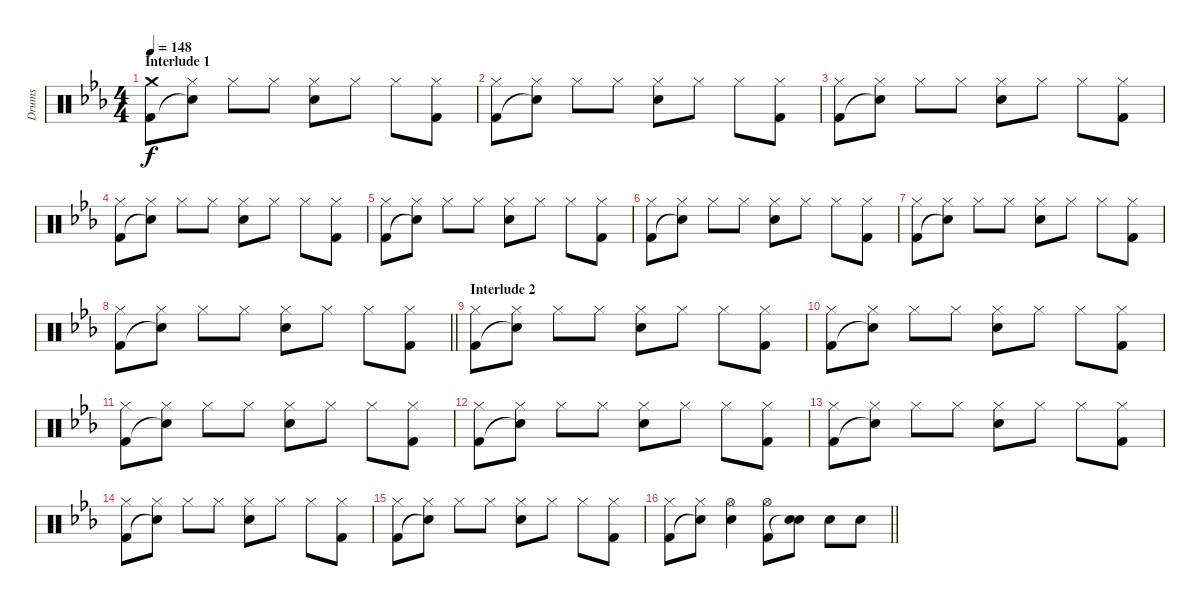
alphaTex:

\track ("Drums" "Drums") {instrument percussion}
\staff {score}
\articulation defaults
\ts (4 4)
\section ("" "Interlude 1")
\tempo 148
\clef neutral
\ks eb
("Crash medium (hit)" "Kick (hit) 2").8{dy f} ("Hi-Hat (closed)" "Snare (hit)"{t}).8 "Hi-Hat (closed)".8 "Hi-Hat (closed)".8 ("Hi-Hat (closed)" "Electric Snare (hit)").8 "Hi-Hat (closed)".8 "Hi-Hat (closed)".8 ("Hi-Hat (closed)" "Kick (hit) 2").8 |
("Hi-Hat (closed)" "Kick (hit) 2").8 ("Hi-Hat (closed)" "Snare (hit)"{t}).8 "Hi-Hat (closed)".8 "Hi-Hat (closed)".8 ("Hi-Hat (closed)" "Electric Snare (hit)").8 "Hi-Hat (closed)".8 "Hi-Hat (closed)".8 ("Hi-Hat (closed)" "Kick (hit) 2").8 |
("Hi-Hat (closed)" "Kick (hit) 2").8 ("Hi-Hat (closed)" "Snare (hit)"{t}).8 "Hi-Hat (closed)".8 "Hi-Hat (closed)".8 ("Hi-Hat (closed)" "Electric Snare (hit)").8 "Hi-Hat (closed)".8 "Hi-Hat (closed)".8 ("Hi-Hat (closed)" "Kick (hit) 2").8 |
("Hi-Hat (closed)" "Kick (hit) 2").8 ("Hi-Hat (closed)" "Snare (hit)"{t}).8 "Hi-Hat (closed)".8 "Hi-Hat (closed)".8 ("Hi-Hat (closed)" "Electric Snare (hit)").8 "Hi-Hat (closed)".8 "Hi-Hat (closed)".8 ("Hi-Hat (closed)" "Kick (hit) 2").8 |
("Hi-Hat (closed)" "Kick (hit) 2").8 ("Hi-Hat (closed)" "Snare (hit)"{t}).8 "Hi-Hat (closed)".8 "Hi-Hat (closed)".8 ("Hi-Hat (closed)" "Electric Snare (hit)").8 "Hi-Hat (closed)".8 "Hi-Hat (closed)".8 ("Hi-Hat (closed)" "Kick (hit) 2").8 |
("Hi-Hat (closed)" "Kick (hit) 2").8 ("Hi-Hat (closed)" "Snare (hit)"{t}).8 "Hi-Hat (closed)".8 "Hi-Hat (closed)".8 ("Hi-Hat (closed)" "Electric Snare (hit)").8 "Hi-Hat (closed)".8 "Hi-Hat (closed)".8 ("Hi-Hat (closed)" "Kick (hit) 2").8 |
("Hi-Hat (closed)" "Kick (hit) 2").8 ("Hi-Hat (closed)" "Snare (hit)"{t}).8 "Hi-Hat (closed)".8 "Hi-Hat (closed)".8 ("Hi-Hat (closed)" "Electric Snare (hit)").8 "Hi-Hat (closed)".8 "Hi-Hat (closed)".8 ("Hi-Hat (closed)" "Kick (hit) 2").8 |
\barLineRight lightlight
("Hi-Hat (closed)" "Kick (hit) 2").8 ("Hi-Hat (closed)" "Snare (hit)"{t}).8 "Hi-Hat (closed)".8 "Hi-Hat (closed)".8 ("Hi-Hat (closed)" "Electric Snare (hit)").8 "Hi-Hat (closed)".8 "Hi-Hat (closed)".8 ("Hi-Hat (closed)" "Kick (hit) 2").8 |
\section ("" "Interlude 2")
("Hi-Hat (closed)" "Kick (hit) 2").8 ("Hi-Hat (closed)" "Snare (hit)"{t}).8 "Hi-Hat (closed)".8 "Hi-Hat (closed)".8 ("Hi-Hat (closed)" "Electric Snare (hit)").8 "Hi-Hat (closed)".8 "Hi-Hat (closed)".8 ("Hi-Hat (closed)" "Kick (hit) 2").8 |
("Hi-Hat (closed)" "Kick (hit) 2").8 ("Hi-Hat (closed)" "Snare (hit)"{t}).8 "Hi-Hat (closed)".8 "Hi-Hat (closed)".8 ("Hi-Hat (closed)" "Electric Snare (hit)").8 "Hi-Hat (closed)".8 "Hi-Hat (closed)".8 ("Hi-Hat (closed)" "Kick (hit) 2").8 |
("Hi-Hat (closed)" "Kick (hit) 2").8 ("Hi-Hat (closed)" "Snare (hit)"{t}).8 "Hi-Hat (closed)".8 "Hi-Hat (closed)".8 ("Hi-Hat (closed)" "Electric Snare (hit)").8 "Hi-Hat (closed)".8 "Hi-Hat (closed)".8 ("Hi-Hat (closed)" "Kick (hit) 2").8 |
("Hi-Hat (closed)" "Kick (hit) 2").8 ("Hi-Hat (closed)" "Snare (hit)"{t}).8 "Hi-Hat (closed)".8 "Hi-Hat (closed)".8 ("Hi-Hat (closed)" "Electric Snare (hit)").8 "Hi-Hat (closed)".8 "Hi-Hat (closed)".8 ("Hi-Hat (closed)" "Kick (hit) 2").8 |
("Hi-Hat (closed)" "Kick (hit) 2").8 ("Hi-Hat (closed)" "Snare (hit)"{t}).8 "Hi-Hat (closed)".8 "Hi-Hat (closed)".8 ("Hi-Hat (closed)" "Electric Snare (hit)").8 "Hi-Hat (closed)".8 "Hi-Hat (closed)".8 ("Hi-Hat (closed)" "Kick (hit) 2").8 |
("Hi-Hat (closed)" "Kick (hit) 2").8 ("Hi-Hat (closed)" "Snare (hit)"{t}).8 "Hi-Hat (closed)".8 "Hi-Hat (closed)".8 ("Hi-Hat (closed)" "Electric Snare (hit)").8 "Hi-Hat (closed)".8 "Hi-Hat (closed)".8 ("Hi-Hat (closed)" "Kick (hit) 2").8 |
("Hi-Hat (closed)" "Kick (hit) 2").8 ("Hi-Hat (closed)" "Snare (hit)"{t}).8 "Hi-Hat (closed)".8 "Hi-Hat (closed)".8 ("Hi-Hat (closed)" "Electric Snare (hit)").8 "Hi-Hat (closed)".8 "Hi-Hat (closed)".8 ("Hi-Hat (closed)" "Kick (hit) 2").8 |
\barLineRight lightlight
("Hi-Hat (closed)" "Kick (hit) 2").8 ("Hi-Hat (closed)" "Snare (hit)"{t}).8 ("Hi-Hat (open)" "Electric Snare (hit)").4 ("Hi-Hat (open)" "Kick (hit) 2").8 ("Electric Snare (hit)" "Snare (hit)"{t}).8 "Electric Snare (hit)".8 "Electric Snare (hit)".8
